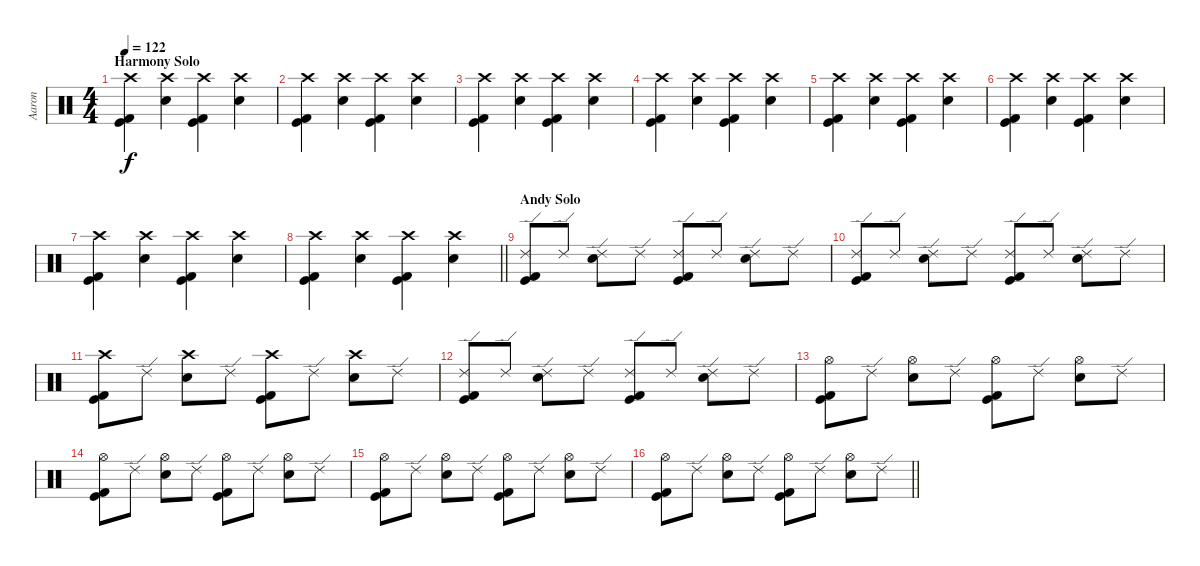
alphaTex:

\track ("Aaron" "Aaron") {instrument percussion}
\staff {score}
\articulation defaults
\ts (4 4)
\section ("" "Harmony Solo")
\tempo 122
\clef neutral
\ks c
("Crash high (hit)" "Kick (hit)" "Kick (hit) 2").4{dy f} ("Crash high (hit)" "Snare (hit) 2").4 ("Crash high (hit)" "Kick (hit)" "Kick (hit) 2").4 ("Crash high (hit)" "Snare (hit) 2").4 |
("Crash high (hit)" "Kick (hit)" "Kick (hit) 2").4 ("Crash high (hit)" "Snare (hit) 2").4 ("Crash high (hit)" "Kick (hit)" "Kick (hit) 2").4 ("Crash high (hit)" "Snare (hit) 2").4 |
("Crash high (hit)" "Kick (hit)" "Kick (hit) 2").4 ("Crash high (hit)" "Snare (hit) 2").4 ("Crash high (hit)" "Kick (hit)" "Kick (hit) 2").4 ("Crash high (hit)" "Snare (hit) 2").4 |
("Crash high (hit)" "Kick (hit)" "Kick (hit) 2").4 ("Crash high (hit)" "Snare (hit) 2").4 ("Crash high (hit)" "Kick (hit)" "Kick (hit) 2").4 ("Crash high (hit)" "Snare (hit) 2").4 |
("Crash high (hit)" "Kick (hit)" "Kick (hit) 2").4 ("Crash high (hit)" "Snare (hit) 2").4 ("Crash high (hit)" "Kick (hit)" "Kick (hit) 2").4 ("Crash high (hit)" "Snare (hit) 2").4 |
("Crash high (hit)" "Kick (hit)" "Kick (hit) 2").4 ("Crash high (hit)" "Snare (hit) 2").4 ("Crash high (hit)" "Kick (hit)" "Kick (hit) 2").4 ("Crash high (hit)" "Snare (hit) 2").4 |
("Crash high (hit)" "Kick (hit)" "Kick (hit) 2").4 ("Crash high (hit)" "Snare (hit) 2").4 ("Crash high (hit)" "Kick (hit)" "Kick (hit) 2").4 ("Crash high (hit)" "Snare (hit) 2").4 |
\barLineRight lightlight
("Crash high (hit)" "Kick (hit)" "Kick (hit) 2").4 ("Crash high (hit)" "Snare (hit) 2").4 ("Crash high (hit)" "Kick (hit)" "Kick (hit) 2").4 ("Crash high (hit)" "Snare (hit) 2").4 |
\section ("" "Andy Solo")
("Ride (edge) 2" "Kick (hit)" "Kick (hit) 2").8 "Ride (edge) 2".8 ("Ride (edge) 2" "Snare (hit) 2").8 "Ride (edge) 2".8 ("Ride (edge) 2" "Kick (hit)" "Kick (hit) 2").8 "Ride (edge) 2".8 ("Ride (edge) 2" "Snare (hit) 2").8 "Ride (edge) 2".8 |
("Ride (edge) 2" "Kick (hit)" "Kick (hit) 2").8 "Ride (edge) 2".8 ("Ride (edge) 2" "Snare (hit) 2").8 "Ride (edge) 2".8 ("Ride (edge) 2" "Kick (hit)" "Kick (hit) 2").8 "Ride (edge) 2".8 ("Ride (edge) 2" "Snare (hit) 2").8 "Ride (edge) 2".8 |
("Crash high (hit)" "Kick (hit)" "Kick (hit) 2").8 "Ride (edge) 2".8 ("Crash high (hit)" "Snare (hit) 2").8 "Ride (edge) 2".8 ("Crash high (hit)" "Kick (hit)" "Kick (hit) 2").8 "Ride (edge) 2".8 ("Crash high (hit)" "Snare (hit) 2").8 "Ride (edge) 2".8 |
("Ride (edge) 2" "Kick (hit)" "Kick (hit) 2").8 "Ride (edge) 2".8 ("Ride (edge) 2" "Snare (hit) 2").8 "Ride (edge) 2".8 ("Ride (edge) 2" "Kick (hit)" "Kick (hit) 2").8 "Ride (edge) 2".8 ("Ride (edge) 2" "Snare (hit) 2").8 "Ride (edge) 2".8 |
("Hi-Hat (open)" "Kick (hit)" "Kick (hit) 2").8 "Ride (edge) 2".8 ("Hi-Hat (open)" "Snare (hit) 2").8 "Ride (edge) 2".8 ("Hi-Hat (open)" "Kick (hit)" "Kick (hit) 2").8 "Ride (edge) 2".8 ("Hi-Hat (open)" "Snare (hit) 2").8 "Ride (edge) 2".8 |
("Hi-Hat (open)" "Kick (hit)" "Kick (hit) 2").8 "Ride (edge) 2".8 ("Hi-Hat (open)" "Snare (hit) 2").8 "Ride (edge) 2".8 ("Hi-Hat (open)" "Kick (hit)" "Kick (hit) 2").8 "Ride (edge) 2".8 ("Hi-Hat (open)" "Snare (hit) 2").8 "Ride (edge) 2".8 |
("Hi-Hat (open)" "Kick (hit)" "Kick (hit) 2").8 "Ride (edge) 2".8 ("Hi-Hat (open)" "Snare (hit) 2").8 "Ride (edge) 2".8 ("Hi-Hat (open)" "Kick (hit)" "Kick (hit) 2").8 "Ride (edge) 2".8 ("Hi-Hat (open)" "Snare (hit) 2").8 "Ride (edge) 2".8 |
\barLineRight lightlight
("Hi-Hat (open)" "Kick (hit)" "Kick (hit) 2").8 "Ride (edge) 2".8 ("Hi-Hat (open)" "Snare (hit) 2").8 "Ride (edge) 2".8 ("Hi-Hat (open)" "Kick (hit)" "Kick (hit) 2").8 "Ride (edge) 2".8 ("Hi-Hat (open)" "Snare (hit) 2").8 "Ride (edge) 2".8
